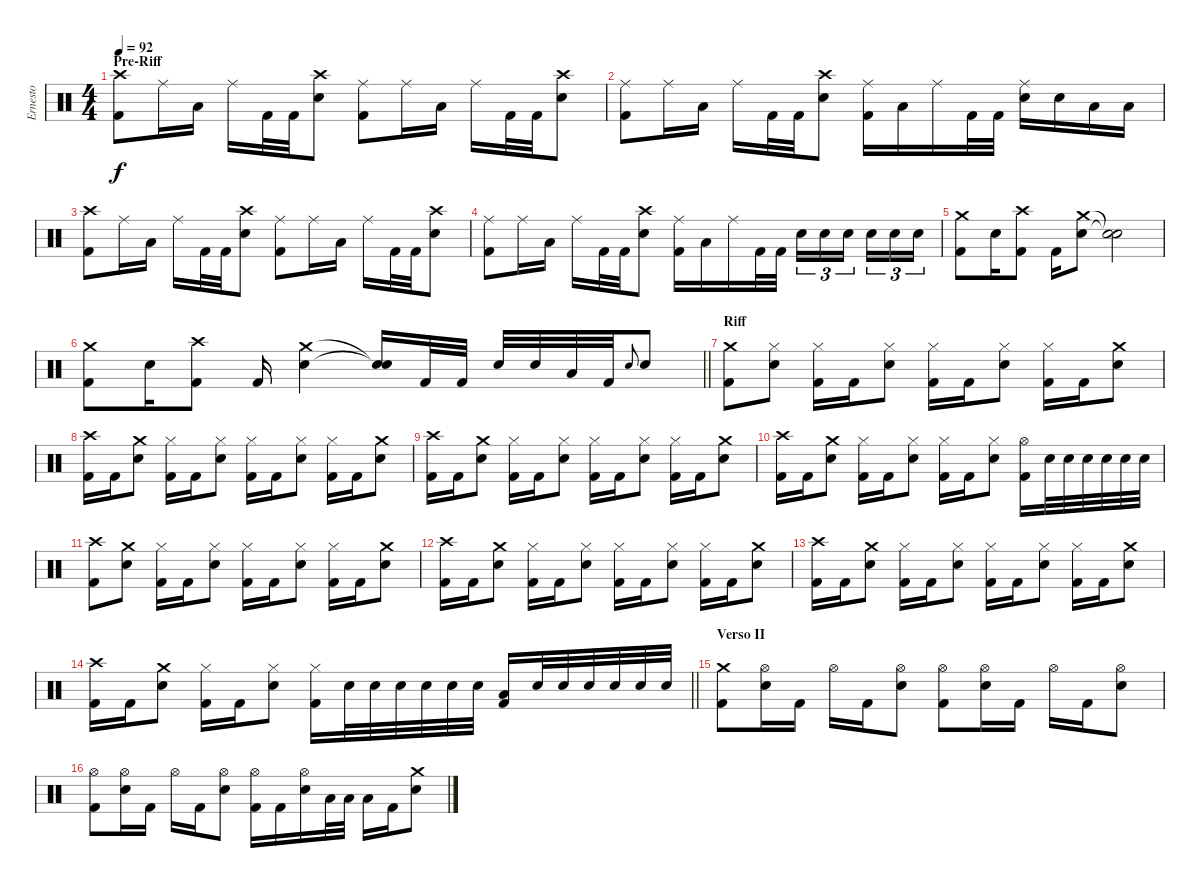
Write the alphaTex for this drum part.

\track ("Ernesto" "Ernesto") {instrument percussion}
\staff
\articulation defaults
\ts (4 4)
\section ("" "Pre-Riff")
\tempo 92
\clef neutral
\ks c
("Crash high (hit)" "Kick (hit) 2").8{dy f} "Ride (middle)".16 "Low Tom (hit)".16 "Ride (middle)".16 "Kick (hit) 2".32 "Kick (hit) 2".32 ("Crash high (hit)" "Electric Snare (hit)").8 ("Ride (middle)" "Kick (hit) 2").8 "Ride (middle)".16 "Low Tom (hit)".16 "Ride (middle)".16 "Kick (hit) 2".32 "Kick (hit) 2".32 ("Crash high (hit)" "Electric Snare (hit)").8 |
("Ride (middle)" "Kick (hit) 2").8 "Ride (middle)".16 "Low Tom (hit)".16 "Ride (middle)".16 "Kick (hit) 2".32 "Kick (hit) 2".32 ("Crash high (hit)" "Electric Snare (hit)").8 ("Ride (middle)" "Kick (hit) 2").16 "Low Tom (hit)".16 "Ride (middle)".16 "Kick (hit) 2".32 "Kick (hit) 2".32 ("Ride (middle)" "Electric Snare (hit)").16 "Electric Snare (hit)".16 "Low Tom (hit)".16 "Low Floor Tom (hit)".16 |
("Crash high (hit)" "Kick (hit) 2").8 "Ride (middle)".16 "Low Tom (hit)".16 "Ride (middle)".16 "Kick (hit) 2".32 "Kick (hit) 2".32 ("Crash high (hit)" "Electric Snare (hit)").8 ("Ride (middle)" "Kick (hit) 2").8 "Ride (middle)".16 "Low Tom (hit)".16 "Ride (middle)".16 "Kick (hit) 2".32 "Kick (hit) 2".32 ("Crash high (hit)" "Electric Snare (hit)").8 |
("Ride (middle)" "Kick (hit) 2").8 "Ride (middle)".16 "Low Tom (hit)".16 "Ride (middle)".16 "Kick (hit) 2".32 "Kick (hit) 2".32 ("Crash high (hit)" "Electric Snare (hit)").8 ("Ride (middle)" "Kick (hit) 2").16 "Low Tom (hit)".16 "Ride (middle)".16 "Kick (hit) 2".32 "Kick (hit) 2".32 "Electric Snare (hit)".16{tu (3 2)} "Electric Snare (hit)".16{tu (3 2)} "Electric Snare (hit)".16{tu (3 2) beam splitsecondary} "Electric Snare (hit)".16{tu (3 2)} "Electric Snare (hit)".16{tu (3 2)} "Electric Snare (hit)".16{tu (3 2)} |
("Crash medium (hit)" "Kick (hit) 2").8 "Electric Snare (hit)".16 ("Crash high (hit)" "Kick (hit) 2").8 "Kick (hit) 2".16 ("Crash medium (hit)" "Electric Snare (hit)").8 ("Snare (hit)"{t} "Snare (hit)"{t}).2 |
\barLineRight lightlight
("Crash medium (hit)" "Kick (hit) 2").8 "Electric Snare (hit)".16 ("Crash high (hit)" "Kick (hit) 2").8 "Kick (hit) 2".16 ("Crash medium (hit)" "Electric Snare (hit)").4 ("Snare (hit)"{t} "Snare (hit)"{t}).16 "Kick (hit) 2".32 "Kick (hit) 2".32 "Electric Snare (hit)".32 "Electric Snare (hit)".32 "Low Tom (hit)".32 "Kick (hit) 2".32 "Electric Snare (hit)".8{gr onbeat} "Electric Snare (hit)".8 |
\section ("" "Riff")
("Crash medium (hit)" "Kick (hit) 2").8 ("Hi-Hat (closed)" "Electric Snare (hit)").8 ("Hi-Hat (closed)" "Kick (hit) 2").16 "Kick (hit) 2".16 ("Hi-Hat (closed)" "Electric Snare (hit)").8 ("Hi-Hat (closed)" "Kick (hit) 2").16 "Kick (hit) 2".16 ("Hi-Hat (closed)" "Electric Snare (hit)").8 ("Hi-Hat (closed)" "Kick (hit) 2").16 "Kick (hit) 2".16 ("Crash medium (hit)" "Electric Snare (hit)").8 |
("Crash high (hit)" "Kick (hit) 2").16 "Kick (hit) 2".16 ("Crash medium (hit)" "Electric Snare (hit)").8 ("Hi-Hat (closed)" "Kick (hit) 2").16 "Kick (hit) 2".16 ("Hi-Hat (closed)" "Electric Snare (hit)").8 ("Hi-Hat (closed)" "Kick (hit) 2").16 "Kick (hit) 2".16 ("Hi-Hat (closed)" "Electric Snare (hit)").8 ("Hi-Hat (closed)" "Kick (hit) 2").16 "Kick (hit) 2".16 ("Crash medium (hit)" "Electric Snare (hit)").8 |
("Crash high (hit)" "Kick (hit) 2").16 "Kick (hit) 2".16 ("Crash medium (hit)" "Electric Snare (hit)").8 ("Hi-Hat (closed)" "Kick (hit) 2").16 "Kick (hit) 2".16 ("Hi-Hat (closed)" "Electric Snare (hit)").8 ("Hi-Hat (closed)" "Kick (hit) 2").16 "Kick (hit) 2".16 ("Hi-Hat (closed)" "Electric Snare (hit)").8 ("Hi-Hat (closed)" "Kick (hit) 2").16 "Kick (hit) 2".16 ("Crash medium (hit)" "Electric Snare (hit)").8 |
("Crash high (hit)" "Kick (hit) 2").16 "Kick (hit) 2".16 ("Crash medium (hit)" "Electric Snare (hit)").8 ("Hi-Hat (closed)" "Kick (hit) 2").16 "Kick (hit) 2".16 ("Hi-Hat (closed)" "Electric Snare (hit)").8 ("Hi-Hat (closed)" "Kick (hit) 2").16 "Kick (hit) 2".16 ("Hi-Hat (closed)" "Electric Snare (hit)").8 ("Hi-Hat (open)" "Kick (hit) 2").16 "Electric Snare (hit)".32 "Electric Snare (hit)".32 "Electric Snare (hit)".32 "Electric Snare (hit)".32 "Electric Snare (hit)".32 "Electric Snare (hit)".32 |
("Crash high (hit)" "Kick (hit) 2").8 ("Crash medium (hit)" "Electric Snare (hit)").8 ("Hi-Hat (closed)" "Kick (hit) 2").16 "Kick (hit) 2".16 ("Hi-Hat (closed)" "Electric Snare (hit)").8 ("Hi-Hat (closed)" "Kick (hit) 2").16 "Kick (hit) 2".16 ("Hi-Hat (closed)" "Electric Snare (hit)").8 ("Hi-Hat (closed)" "Kick (hit) 2").16 "Kick (hit) 2".16 ("Crash medium (hit)" "Electric Snare (hit)").8 |
("Crash high (hit)" "Kick (hit) 2").16 "Kick (hit) 2".16 ("Crash medium (hit)" "Electric Snare (hit)").8 ("Hi-Hat (closed)" "Kick (hit) 2").16 "Kick (hit) 2".16 ("Hi-Hat (closed)" "Electric Snare (hit)").8 ("Hi-Hat (closed)" "Kick (hit) 2").16 "Kick (hit) 2".16 ("Hi-Hat (closed)" "Electric Snare (hit)").8 ("Hi-Hat (closed)" "Kick (hit) 2").16 "Kick (hit) 2".16 ("Crash medium (hit)" "Electric Snare (hit)").8 |
("Crash high (hit)" "Kick (hit) 2").16 "Kick (hit) 2".16 ("Crash medium (hit)" "Electric Snare (hit)").8 ("Hi-Hat (closed)" "Kick (hit) 2").16 "Kick (hit) 2".16 ("Hi-Hat (closed)" "Electric Snare (hit)").8 ("Hi-Hat (closed)" "Kick (hit) 2").16 "Kick (hit) 2".16 ("Hi-Hat (closed)" "Electric Snare (hit)").8 ("Hi-Hat (closed)" "Kick (hit) 2").16 "Kick (hit) 2".16 ("Crash medium (hit)" "Electric Snare (hit)").8 |
\barLineRight lightlight
("Crash high (hit)" "Kick (hit) 2").16 "Kick (hit) 2".16 ("Crash medium (hit)" "Electric Snare (hit)").8 ("Hi-Hat (closed)" "Kick (hit) 2").16 "Kick (hit) 2".16 ("Hi-Hat (closed)" "Electric Snare (hit)").8 ("Hi-Hat (closed)" "Kick (hit) 2").16 "Electric Snare (hit)".32 "Electric Snare (hit)".32 "Electric Snare (hit)".32 "Electric Snare (hit)".32 "Electric Snare (hit)".32 "Electric Snare (hit)".32 ("Low Tom (hit)" "Kick (hit) 2").16 "Electric Snare (hit)".32 "Electric Snare (hit)".32 "Electric Snare (hit)".32 "Electric Snare (hit)".32 "Electric Snare (hit)".32 "Electric Snare (hit)".32 |
\section ("" "Verso II")
("Crash medium (hit)" "Kick (hit) 2").8 ("Hi-Hat (open)" "Electric Snare (hit)").16 "Kick (hit) 2".16 "Hi-Hat (open)".16 "Kick (hit) 2".16 ("Hi-Hat (open)" "Electric Snare (hit)").8 ("Hi-Hat (open)" "Kick (hit) 2").8 ("Hi-Hat (open)" "Electric Snare (hit)").16 "Kick (hit) 2".16 "Hi-Hat (open)".16 "Kick (hit) 2".16 ("Hi-Hat (open)" "Electric Snare (hit)").8 |
("Hi-Hat (open)" "Kick (hit) 2").8 ("Hi-Hat (open)" "Electric Snare (hit)").16 "Kick (hit) 2".16 "Hi-Hat (open)".16 "Kick (hit) 2".16 ("Hi-Hat (open)" "Electric Snare (hit)").8 ("Hi-Hat (open)" "Kick (hit) 2").16 "Kick (hit) 2".16 ("Hi-Hat (open)" "Electric Snare (hit)").16 "Low Tom (hit)".32 "Low Tom (hit)".32 "Low Floor Tom (hit)".16 "Kick (hit) 2".16 ("Crash medium (hit)" "Electric Snare (hit)").8
